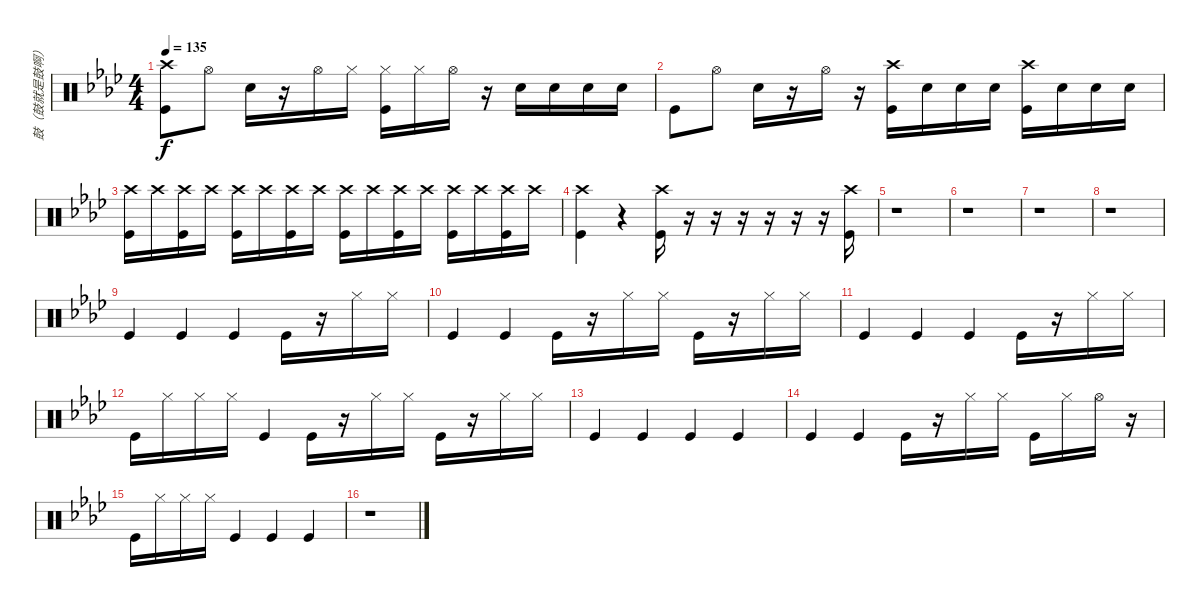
\track ("鼓（鼓就是鼓啊）" "鼓（鼓就是鼓啊）") {instrument percussion}
\staff {score}
\articulation defaults
\ts (4 4)
\tempo 135
\clef neutral
\ks ab
("Crash high (hit)" "Kick (hit)").8{dy f} "Hi-Hat (open)".8 "Snare (hit) 2".16 r.16 "Hi-Hat (open)".16 "Hi-Hat (closed)".16 ("Hi-Hat (closed)" "Kick (hit)").16 "Hi-Hat (closed)".16 "Hi-Hat (open)".16 r.16 "Snare (hit) 2".16 "Snare (hit) 2".16 "Snare (hit) 2".16 "Snare (hit) 2".16 |
"Kick (hit)".8 "Hi-Hat (open)".8 "Snare (hit) 2".16 r.16 "Hi-Hat (open)".16 r.16 ("Crash high (hit)" "Kick (hit)").16 "Snare (hit) 2".16 "Snare (hit) 2".16 "Snare (hit) 2".16 ("Crash high (hit)" "Kick (hit)").16 "Snare (hit) 2".16 "Snare (hit) 2".16 "Snare (hit) 2".16 |
("Crash high (hit)" "Kick (hit)").16 "Crash high (hit)".16 ("Crash high (hit)" "Kick (hit)").16 "Crash high (hit)".16 ("Crash high (hit)" "Kick (hit)").16 "Crash high (hit)".16 ("Crash high (hit)" "Kick (hit)").16 "Crash high (hit)".16 ("Crash high (hit)" "Kick (hit)").16 "Crash high (hit)".16 ("Crash high (hit)" "Kick (hit)").16 "Crash high (hit)".16 ("Crash high (hit)" "Kick (hit)").16 "Crash high (hit)".16 ("Crash high (hit)" "Kick (hit)").16 "Crash high (hit)".16 |
("Crash high (hit)" "Kick (hit)").4 r.4 ("Crash high (hit)" "Kick (hit)").16 r.16 r.16 r.16 r.16 r.16 r.16 ("Crash high (hit)" "Kick (hit)").16 |
r.1 |
r.1 |
r.1 |
r.1 |
"Kick (hit)".4 "Kick (hit)".4 "Kick (hit)".4 "Kick (hit)".16 r.16 "Hi-Hat (closed)".16 "Hi-Hat (closed)".16 |
"Kick (hit)".4 "Kick (hit)".4 "Kick (hit)".16 r.16 "Hi-Hat (closed)".16 "Hi-Hat (closed)".16 "Kick (hit)".16 r.16 "Hi-Hat (closed)".16 "Hi-Hat (closed)".16 |
"Kick (hit)".4 "Kick (hit)".4 "Kick (hit)".4 "Kick (hit)".16 r.16 "Hi-Hat (closed)".16 "Hi-Hat (closed)".16 |
"Kick (hit)".16 "Hi-Hat (closed)".16 "Hi-Hat (closed)".16 "Hi-Hat (closed)".16 "Kick (hit)".4 "Kick (hit)".16 r.16 "Hi-Hat (closed)".16 "Hi-Hat (closed)".16 "Kick (hit)".16 r.16 "Hi-Hat (closed)".16 "Hi-Hat (closed)".16 |
"Kick (hit)".4 "Kick (hit)".4 "Kick (hit)".4 "Kick (hit)".4 |
"Kick (hit)".4 "Kick (hit)".4 "Kick (hit)".16 r.16 "Hi-Hat (closed)".16 "Hi-Hat (closed)".16 "Kick (hit)".16 "Hi-Hat (closed)".16 "Hi-Hat (open)".16 r.16 |
"Kick (hit)".16 "Hi-Hat (closed)".16 "Hi-Hat (closed)".16 "Hi-Hat (closed)".16 "Kick (hit)".4 "Kick (hit)".4 "Kick (hit)".4 |
r.1
